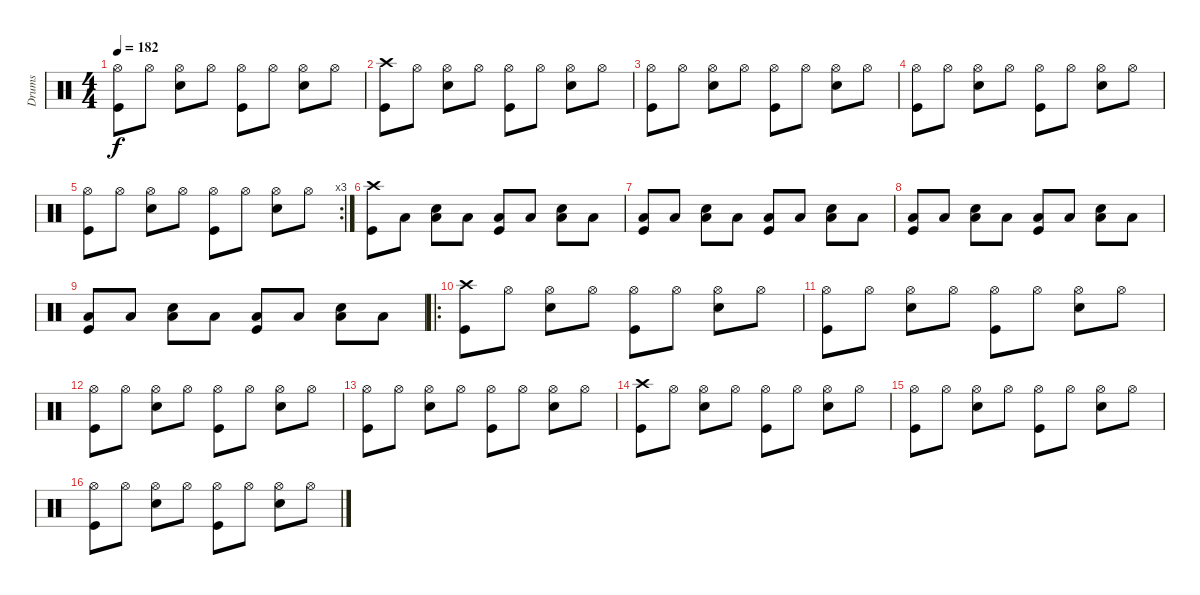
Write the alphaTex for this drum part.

\track ("Drums" "Drums") {instrument percussion}
\staff {score}
\articulation defaults
\ts (4 4)
\tempo 182
\clef neutral
\ks c
("Hi-Hat (open)" "Kick (hit)").8{dy f} "Hi-Hat (open)".8 ("Hi-Hat (open)" "Snare (hit) 2").8 "Hi-Hat (open)".8 ("Hi-Hat (open)" "Kick (hit)").8 "Hi-Hat (open)".8 ("Hi-Hat (open)" "Snare (hit) 2").8 "Hi-Hat (open)".8 |
("Crash high (hit)" "Kick (hit)").8 "Hi-Hat (open)".8 ("Hi-Hat (open)" "Snare (hit) 2").8 "Hi-Hat (open)".8 ("Hi-Hat (open)" "Kick (hit)").8 "Hi-Hat (open)".8 ("Hi-Hat (open)" "Snare (hit) 2").8 "Hi-Hat (open)".8 |
("Hi-Hat (open)" "Kick (hit)").8 "Hi-Hat (open)".8 ("Hi-Hat (open)" "Snare (hit) 2").8 "Hi-Hat (open)".8 ("Hi-Hat (open)" "Kick (hit)").8 "Hi-Hat (open)".8 ("Hi-Hat (open)" "Snare (hit) 2").8 "Hi-Hat (open)".8 |
("Hi-Hat (open)" "Kick (hit)").8 "Hi-Hat (open)".8 ("Hi-Hat (open)" "Snare (hit) 2").8 "Hi-Hat (open)".8 ("Hi-Hat (open)" "Kick (hit)").8 "Hi-Hat (open)".8 ("Hi-Hat (open)" "Snare (hit) 2").8 "Hi-Hat (open)".8 |
\rc 3
("Hi-Hat (open)" "Kick (hit)").8 "Hi-Hat (open)".8 ("Hi-Hat (open)" "Snare (hit) 2").8 "Hi-Hat (open)".8 ("Hi-Hat (open)" "Kick (hit)").8 "Hi-Hat (open)".8 ("Hi-Hat (open)" "Snare (hit) 2").8 "Hi-Hat (open)".8 |
("Crash high (hit)" "Kick (hit)").8 "Low Floor Tom (hit)".8 ("Snare (hit) 2" "Low Floor Tom (hit)").8 "Low Floor Tom (hit)".8 ("Low Floor Tom (hit)" "Kick (hit)").8 "Low Floor Tom (hit)".8 ("Snare (hit) 2" "Low Floor Tom (hit)").8 "Low Floor Tom (hit)".8 |
("Low Floor Tom (hit)" "Kick (hit)").8 "Low Floor Tom (hit)".8 ("Snare (hit) 2" "Low Floor Tom (hit)").8 "Low Floor Tom (hit)".8 ("Low Floor Tom (hit)" "Kick (hit)").8 "Low Floor Tom (hit)".8 ("Snare (hit) 2" "Low Floor Tom (hit)").8 "Low Floor Tom (hit)".8 |
("Low Floor Tom (hit)" "Kick (hit)").8 "Low Floor Tom (hit)".8 ("Snare (hit) 2" "Low Floor Tom (hit)").8 "Low Floor Tom (hit)".8 ("Low Floor Tom (hit)" "Kick (hit)").8 "Low Floor Tom (hit)".8 ("Snare (hit) 2" "Low Floor Tom (hit)").8 "Low Floor Tom (hit)".8 |
("Low Floor Tom (hit)" "Kick (hit)").8 "Low Floor Tom (hit)".8 ("Snare (hit) 2" "Low Floor Tom (hit)").8 "Low Floor Tom (hit)".8 ("Low Floor Tom (hit)" "Kick (hit)").8 "Low Floor Tom (hit)".8 ("Snare (hit) 2" "Low Floor Tom (hit)").8 "Low Floor Tom (hit)".8 |
\ro
("Crash high (hit)" "Kick (hit)").8 "Hi-Hat (open)".8 ("Hi-Hat (open)" "Snare (hit) 2").8 "Hi-Hat (open)".8 ("Hi-Hat (open)" "Kick (hit)").8 "Hi-Hat (open)".8 ("Hi-Hat (open)" "Snare (hit) 2").8 "Hi-Hat (open)".8 |
("Hi-Hat (open)" "Kick (hit)").8 "Hi-Hat (open)".8 ("Hi-Hat (open)" "Snare (hit) 2").8 "Hi-Hat (open)".8 ("Hi-Hat (open)" "Kick (hit)").8 "Hi-Hat (open)".8 ("Hi-Hat (open)" "Snare (hit) 2").8 "Hi-Hat (open)".8 |
("Hi-Hat (open)" "Kick (hit)").8 "Hi-Hat (open)".8 ("Hi-Hat (open)" "Snare (hit) 2").8 "Hi-Hat (open)".8 ("Hi-Hat (open)" "Kick (hit)").8 "Hi-Hat (open)".8 ("Hi-Hat (open)" "Snare (hit) 2").8 "Hi-Hat (open)".8 |
("Hi-Hat (open)" "Kick (hit)").8 "Hi-Hat (open)".8 ("Hi-Hat (open)" "Snare (hit) 2").8 "Hi-Hat (open)".8 ("Hi-Hat (open)" "Kick (hit)").8 "Hi-Hat (open)".8 ("Hi-Hat (open)" "Snare (hit) 2").8 "Hi-Hat (open)".8 |
("Crash high (hit)" "Kick (hit)").8 "Hi-Hat (open)".8 ("Hi-Hat (open)" "Snare (hit) 2").8 "Hi-Hat (open)".8 ("Hi-Hat (open)" "Kick (hit)").8 "Hi-Hat (open)".8 ("Hi-Hat (open)" "Snare (hit) 2").8 "Hi-Hat (open)".8 |
("Hi-Hat (open)" "Kick (hit)").8 "Hi-Hat (open)".8 ("Hi-Hat (open)" "Snare (hit) 2").8 "Hi-Hat (open)".8 ("Hi-Hat (open)" "Kick (hit)").8 "Hi-Hat (open)".8 ("Hi-Hat (open)" "Snare (hit) 2").8 "Hi-Hat (open)".8 |
("Hi-Hat (open)" "Kick (hit)").8 "Hi-Hat (open)".8 ("Hi-Hat (open)" "Snare (hit) 2").8 "Hi-Hat (open)".8 ("Hi-Hat (open)" "Kick (hit)").8 "Hi-Hat (open)".8 ("Hi-Hat (open)" "Snare (hit) 2").8 "Hi-Hat (open)".8
